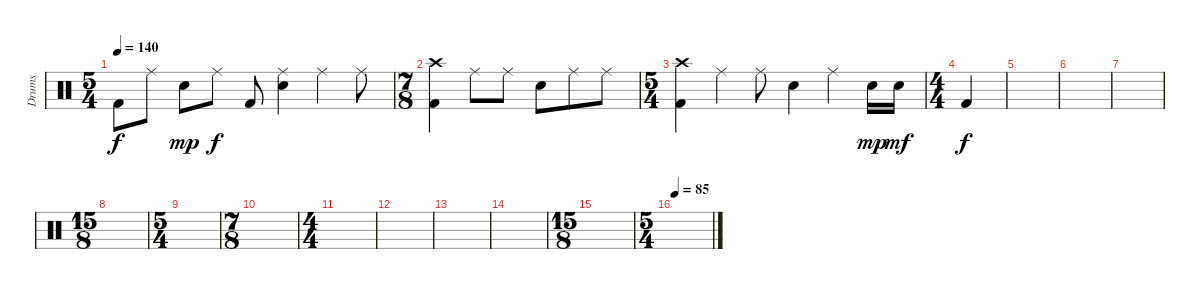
\track ("Drums" "Drums") {instrument percussion}
\staff {score}
\articulation defaults
\ts (5 4)
\tempo 140
\clef neutral
\ks c "Kick (hit) 2".8{dy f} "Ride (middle)".8 "Snare (hit) 2".8{dy mp} "Ride (middle)".8{dy f} "Kick (hit) 2".8
("Ride (middle)" "Snare (hit) 2").4 "Ride (middle)".4 "Ride (middle)".8 |
\ts (7 8)
("Crash high (hit)" "Kick (hit) 2").4 "Ride (middle)".8 "Ride (middle)".8 "Snare (hit) 2".8 "Ride (middle)".8 "Ride (middle)".8 |
\ts (5 4)
("Crash high (hit)" "Kick (hit) 2").4 "Ride (middle)".4 "Ride (middle)".8 "Snare (hit) 2".4 "Ride (middle)".4 "Snare (hit) 2".16{dy mp} "Snare (hit) 2".16{dy mf} |
\ts (4 4)
"Kick (hit) 2".4{dy f} |
|
|
|
\ts (15 8)
|
\ts (5 4)
|
\ts (7 8)
|
\ts (4 4)
|
|
|
|
\ts (15 8)
|
\ts (5 4)
\tempo 85
